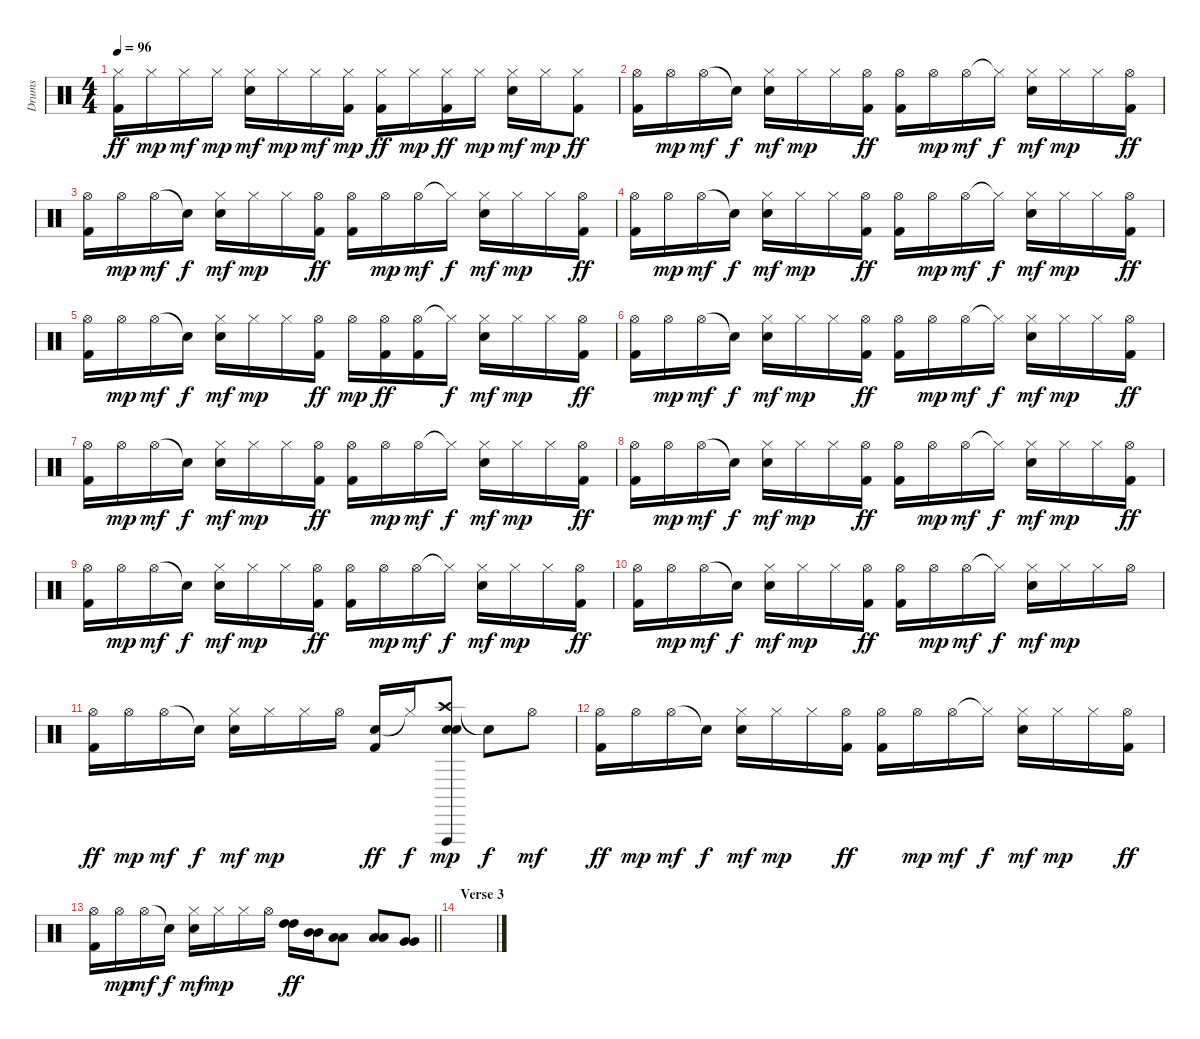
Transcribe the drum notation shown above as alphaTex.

\track ("Drums" "Drums") {instrument percussion}
\staff {score}
\articulation defaults
\ts (4 4)
\tempo 96
\clef neutral
\ks c
("Hi-Hat (closed)" "Kick (hit) 2").16{dy ff} "Hi-Hat (closed)".16{dy mp} "Hi-Hat (closed)".16{dy mf} "Hi-Hat (closed)".16{dy mp} ("Hi-Hat (closed)" "Electric Snare (hit)").16{dy mf} "Hi-Hat (closed)".16{dy mp} "Hi-Hat (closed)".16{dy mf} ("Hi-Hat (closed)" "Kick (hit) 2").16{dy mp} ("Hi-Hat (closed)" "Kick (hit) 2").16{dy ff} "Hi-Hat (closed)".16{dy mp} ("Hi-Hat (closed)" "Kick (hit) 2").16{dy ff} "Hi-Hat (closed)".16{dy mp} ("Hi-Hat (closed)" "Electric Snare (hit)").16{dy mf} "Hi-Hat (closed)".16{dy mp} ("Hi-Hat (closed)" "Kick (hit) 2").8{dy ff} |
("Hi-Hat (open)" "Kick (hit) 2").16 "Hi-Hat (open)".16{dy mp} "Hi-Hat (open)".16{dy mf} "Snare (hit)"{t}.16{dy f} ("Hi-Hat (closed)" "Electric Snare (hit)").16{dy mf} "Hi-Hat (closed)".16{dy mp} "Hi-Hat (closed)".16 ("Hi-Hat (open)" "Kick (hit) 2").16{dy ff} ("Hi-Hat (open)" "Kick (hit) 2").16 "Hi-Hat (open)".16{dy mp} "Hi-Hat (open)".16{dy mf} "Hi-Hat (closed)"{t}.16{dy f} ("Hi-Hat (closed)" "Electric Snare (hit)").16{dy mf} "Hi-Hat (closed)".16{dy mp} "Hi-Hat (closed)".16 ("Hi-Hat (open)" "Kick (hit) 2").16{dy ff} |
("Hi-Hat (open)" "Kick (hit) 2").16 "Hi-Hat (open)".16{dy mp} "Hi-Hat (open)".16{dy mf} "Snare (hit)"{t}.16{dy f} ("Hi-Hat (closed)" "Electric Snare (hit)").16{dy mf} "Hi-Hat (closed)".16{dy mp} "Hi-Hat (closed)".16 ("Hi-Hat (open)" "Kick (hit) 2").16{dy ff} ("Hi-Hat (open)" "Kick (hit) 2").16 "Hi-Hat (open)".16{dy mp} "Hi-Hat (open)".16{dy mf} "Hi-Hat (closed)"{t}.16{dy f} ("Hi-Hat (closed)" "Electric Snare (hit)").16{dy mf} "Hi-Hat (closed)".16{dy mp} "Hi-Hat (closed)".16 ("Hi-Hat (open)" "Kick (hit) 2").16{dy ff} |
("Hi-Hat (open)" "Kick (hit) 2").16 "Hi-Hat (open)".16{dy mp} "Hi-Hat (open)".16{dy mf} "Snare (hit)"{t}.16{dy f} ("Hi-Hat (closed)" "Electric Snare (hit)").16{dy mf} "Hi-Hat (closed)".16{dy mp} "Hi-Hat (closed)".16 ("Hi-Hat (open)" "Kick (hit) 2").16{dy ff} ("Hi-Hat (open)" "Kick (hit) 2").16 "Hi-Hat (open)".16{dy mp} "Hi-Hat (open)".16{dy mf} "Hi-Hat (closed)"{t}.16{dy f} ("Hi-Hat (closed)" "Electric Snare (hit)").16{dy mf} "Hi-Hat (closed)".16{dy mp} "Hi-Hat (closed)".16 ("Hi-Hat (open)" "Kick (hit) 2").16{dy ff} |
("Hi-Hat (open)" "Kick (hit) 2").16 "Hi-Hat (open)".16{dy mp} "Hi-Hat (open)".16{dy mf} "Snare (hit)"{t}.16{dy f} ("Hi-Hat (closed)" "Electric Snare (hit)").16{dy mf} "Hi-Hat (closed)".16{dy mp} "Hi-Hat (closed)".16 ("Hi-Hat (open)" "Kick (hit) 2").16{dy ff} "Hi-Hat (open)".16{dy mp} ("Hi-Hat (open)" "Kick (hit) 2").16{dy ff} ("Hi-Hat (open)" "Kick (hit) 2").16 "Hi-Hat (closed)"{t}.16{dy f} ("Hi-Hat (closed)" "Electric Snare (hit)").16{dy mf} "Hi-Hat (closed)".16{dy mp} "Hi-Hat (closed)".16 ("Hi-Hat (open)" "Kick (hit) 2").16{dy ff} |
("Hi-Hat (open)" "Kick (hit) 2").16 "Hi-Hat (open)".16{dy mp} "Hi-Hat (open)".16{dy mf} "Snare (hit)"{t}.16{dy f} ("Hi-Hat (closed)" "Electric Snare (hit)").16{dy mf} "Hi-Hat (closed)".16{dy mp} "Hi-Hat (closed)".16 ("Hi-Hat (open)" "Kick (hit) 2").16{dy ff} ("Hi-Hat (open)" "Kick (hit) 2").16 "Hi-Hat (open)".16{dy mp} "Hi-Hat (open)".16{dy mf} "Hi-Hat (closed)"{t}.16{dy f} ("Hi-Hat (closed)" "Electric Snare (hit)").16{dy mf} "Hi-Hat (closed)".16{dy mp} "Hi-Hat (closed)".16 ("Hi-Hat (open)" "Kick (hit) 2").16{dy ff} |
("Hi-Hat (open)" "Kick (hit) 2").16 "Hi-Hat (open)".16{dy mp} "Hi-Hat (open)".16{dy mf} "Snare (hit)"{t}.16{dy f} ("Hi-Hat (closed)" "Electric Snare (hit)").16{dy mf} "Hi-Hat (closed)".16{dy mp} "Hi-Hat (closed)".16 ("Hi-Hat (open)" "Kick (hit) 2").16{dy ff} ("Hi-Hat (open)" "Kick (hit) 2").16 "Hi-Hat (open)".16{dy mp} "Hi-Hat (open)".16{dy mf} "Hi-Hat (closed)"{t}.16{dy f} ("Hi-Hat (closed)" "Electric Snare (hit)").16{dy mf} "Hi-Hat (closed)".16{dy mp} "Hi-Hat (closed)".16 ("Hi-Hat (open)" "Kick (hit) 2").16{dy ff} |
("Hi-Hat (open)" "Kick (hit) 2").16 "Hi-Hat (open)".16{dy mp} "Hi-Hat (open)".16{dy mf} "Snare (hit)"{t}.16{dy f} ("Hi-Hat (closed)" "Electric Snare (hit)").16{dy mf} "Hi-Hat (closed)".16{dy mp} "Hi-Hat (closed)".16 ("Hi-Hat (open)" "Kick (hit) 2").16{dy ff} ("Hi-Hat (open)" "Kick (hit) 2").16 "Hi-Hat (open)".16{dy mp} "Hi-Hat (open)".16{dy mf} "Hi-Hat (closed)"{t}.16{dy f} ("Hi-Hat (closed)" "Electric Snare (hit)").16{dy mf} "Hi-Hat (closed)".16{dy mp} "Hi-Hat (closed)".16 ("Hi-Hat (open)" "Kick (hit) 2").16{dy ff} |
("Hi-Hat (open)" "Kick (hit) 2").16 "Hi-Hat (open)".16{dy mp} "Hi-Hat (open)".16{dy mf} "Snare (hit)"{t}.16{dy f} ("Hi-Hat (closed)" "Electric Snare (hit)").16{dy mf} "Hi-Hat (closed)".16{dy mp} "Hi-Hat (closed)".16 ("Hi-Hat (open)" "Kick (hit) 2").16{dy ff} ("Hi-Hat (open)" "Kick (hit) 2").16 "Hi-Hat (open)".16{dy mp} "Hi-Hat (open)".16{dy mf} "Hi-Hat (closed)"{t}.16{dy f} ("Hi-Hat (closed)" "Electric Snare (hit)").16{dy mf} "Hi-Hat (closed)".16{dy mp} "Hi-Hat (closed)".16 ("Hi-Hat (open)" "Kick (hit) 2").16{dy ff} |
("Hi-Hat (open)" "Kick (hit) 2").16 "Hi-Hat (open)".16{dy mp} "Hi-Hat (open)".16{dy mf} "Snare (hit)"{t}.16{dy f} ("Hi-Hat (closed)" "Electric Snare (hit)").16{dy mf} "Hi-Hat (closed)".16{dy mp} "Hi-Hat (closed)".16 ("Hi-Hat (open)" "Kick (hit) 2").16{dy ff} ("Hi-Hat (open)" "Kick (hit) 2").16 "Hi-Hat (open)".16{dy mp} "Hi-Hat (open)".16{dy mf} "Hi-Hat (closed)"{t}.16{dy f} ("Hi-Hat (closed)" "Electric Snare (hit)").16{dy mf} "Hi-Hat (closed)".16{dy mp} "Hi-Hat (closed)".16 "Hi-Hat (open)".16 |
("Hi-Hat (open)" "Kick (hit) 2").16{dy ff} "Hi-Hat (open)".16{dy mp} "Hi-Hat (open)".16{dy mf} "Snare (hit)"{t}.16{dy f} ("Hi-Hat (closed)" "Electric Snare (hit)").16{dy mf} "Hi-Hat (closed)".16{dy mp} "Hi-Hat (closed)".16 "Hi-Hat (open)".16 ("Electric Snare (hit)" "Kick (hit) 2").16{dy ff} "Hi-Hat (closed)"{t}.16{dy f} ("Crash high (hit)" "Vibraslap (hit)" "Electric Snare (hit)" "Snare (hit) 2").8{dy mp} "Snare (hit)"{t}.8{dy f} "Hi-Hat (open)".8{dy mf} |
("Hi-Hat (open)" "Kick (hit) 2").16{dy ff} "Hi-Hat (open)".16{dy mp} "Hi-Hat (open)".16{dy mf} "Snare (hit)"{t}.16{dy f} ("Hi-Hat (closed)" "Electric Snare (hit)").16{dy mf} "Hi-Hat (closed)".16{dy mp} "Hi-Hat (closed)".16 ("Hi-Hat (open)" "Kick (hit) 2").16{dy ff} ("Hi-Hat (open)" "Kick (hit) 2").16 "Hi-Hat (open)".16{dy mp} "Hi-Hat (open)".16{dy mf} "Hi-Hat (closed)"{t}.16{dy f} ("Hi-Hat (closed)" "Electric Snare (hit)").16{dy mf} "Hi-Hat (closed)".16{dy mp} "Hi-Hat (closed)".16 ("Hi-Hat (open)" "Kick (hit) 2").16{dy ff} |
\barLineRight lightlight
("Hi-Hat (open)" "Kick (hit) 2").16 "Hi-Hat (open)".16{dy mp} "Hi-Hat (open)".16{dy mf} "Snare (hit)"{t}.16{dy f} ("Hi-Hat (closed)" "Electric Snare (hit)").16{dy mf} "Hi-Hat (closed)".16{dy mp} "Hi-Hat (closed)".16 "Hi-Hat (open)".16 ("High Tom (hit)" "High Tom (hit)").16{dy ff} ("Mid Tom (hit)" "Mid Tom (hit)").16 ("Low Tom (hit)" "Low Tom (hit)").8 ("Low Tom (hit)" "Low Tom (hit)").8 ("Very Low Tom (hit)" "Very Low Tom (hit)").8 |
\section ("" "Verse 3")
